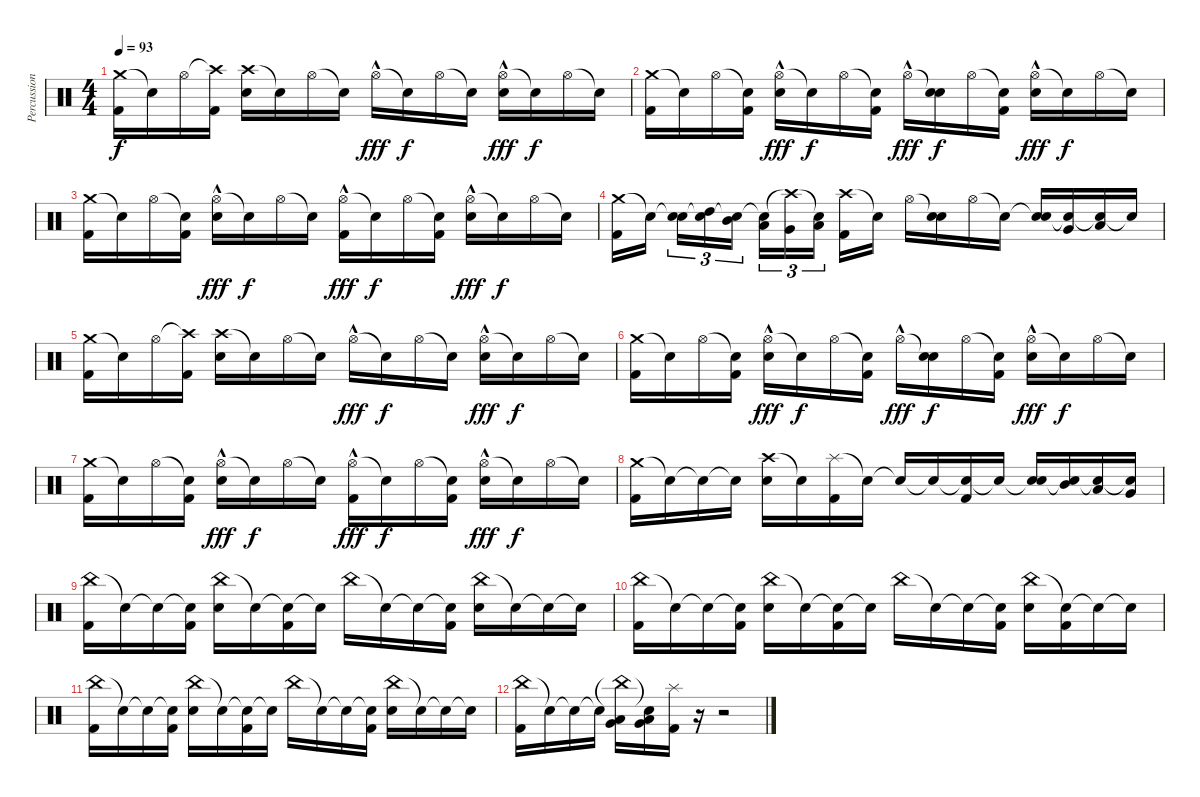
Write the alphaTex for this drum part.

\track ("Percussion" "Percussion") {instrument percussion}
\staff {score}
\articulation defaults
\ts (4 4)
\tempo 93
\clef neutral
\ks c
("Crash medium (hit)" "Kick (hit) 2").16{dy f} "Snare (hit)"{t}.16 "Hi-Hat (open)".16 ("Crash high (hit)"{t} "Kick (hit) 2").16 ("Crash high (hit)" "Electric Snare (hit)").16 "Snare (hit)"{t}.16 "Hi-Hat (open)".16 "Snare (hit)"{t}.16 "Hi-Hat (open)"{hac}.16{dy fff} "Snare (hit)"{t}.16{dy f} "Hi-Hat (open)".16 "Snare (hit)"{t}.16 ("Hi-Hat (open)"{hac} "Electric Snare (hit)").16{dy fff} "Snare (hit)"{t}.16{dy f} "Hi-Hat (open)".16 "Snare (hit)"{t}.16 |
("Crash medium (hit)" "Kick (hit) 2").16 "Snare (hit)"{t}.16 "Hi-Hat (open)".16 ("Snare (hit)"{t} "Kick (hit) 2").16 ("Hi-Hat (open)"{hac} "Electric Snare (hit)").16{dy fff} "Snare (hit)"{t}.16{dy f} "Hi-Hat (open)".16 ("Snare (hit)"{t} "Kick (hit) 2").16 "Hi-Hat (open)"{hac}.16{dy fff} ("Snare (hit)"{t} "Electric Snare (hit)").16{dy f} "Hi-Hat (open)".16 ("Snare (hit)"{t} "Kick (hit) 2").16 ("Hi-Hat (open)"{hac} "Electric Snare (hit)").16{dy fff} "Snare (hit)"{t}.16{dy f} "Hi-Hat (open)".16 "Snare (hit)"{t}.16 |
("Crash medium (hit)" "Kick (hit) 2").16 "Snare (hit)"{t}.16 "Hi-Hat (open)".16 ("Snare (hit)"{t} "Kick (hit) 2").16 ("Hi-Hat (open)"{hac} "Electric Snare (hit)").16{dy fff} "Snare (hit)"{t}.16{dy f} "Hi-Hat (open)".16 "Snare (hit)"{t}.16 ("Hi-Hat (open)"{hac} "Kick (hit) 2").16{dy fff} "Snare (hit)"{t}.16{dy f} "Hi-Hat (open)".16 ("Snare (hit)"{t} "Kick (hit) 2").16 ("Hi-Hat (open)"{hac} "Electric Snare (hit)").16{dy fff} "Snare (hit)"{t}.16{dy f} "Hi-Hat (open)".16 "Snare (hit)"{t}.16 |
("Crash medium (hit)" "Kick (hit) 2").16 "Snare (hit)"{t}.16{beam splitsecondary} ("Snare (hit)"{t} "Electric Snare (hit)").16{tu (3 2)} ("Snare (hit)"{t} "High Tom (hit)").16{tu (3 2)} ("Snare (hit)"{t} "Mid Tom (hit)").16{tu (3 2)} ("Snare (hit)"{t} "Low Tom (hit)").16{tu (3 2)} ("Crash high (hit)"{t} "Very Low Tom (hit)").16{tu (3 2)} ("Snare (hit)"{t} "Low Floor Tom (hit)").16{tu (3 2) beam splitsecondary} ("Crash high (hit)" "Kick (hit) 2").16 "Snare (hit)"{t}.16 "Hi-Hat (open)".16 ("Snare (hit)"{t} "Electric Snare (hit)").16 "Hi-Hat (open)".16 "Snare (hit)"{t}.16 ("Snare (hit)"{t} "Electric Snare (hit)").16 ("Snare (hit)"{t} "Very Low Tom (hit)").16 ("Snare (hit)"{t} "Low Floor Tom (hit)").16 "Snare (hit)"{t}.16 |
("Crash medium (hit)" "Kick (hit) 2").16 "Snare (hit)"{t}.16 "Hi-Hat (open)".16 ("Crash high (hit)"{t} "Kick (hit) 2").16 ("Crash high (hit)" "Electric Snare (hit)").16 "Snare (hit)"{t}.16 "Hi-Hat (open)".16 "Snare (hit)"{t}.16 "Hi-Hat (open)"{hac}.16{dy fff} "Snare (hit)"{t}.16{dy f} "Hi-Hat (open)".16 "Snare (hit)"{t}.16 ("Hi-Hat (open)"{hac} "Electric Snare (hit)").16{dy fff} "Snare (hit)"{t}.16{dy f} "Hi-Hat (open)".16 "Snare (hit)"{t}.16 |
("Crash medium (hit)" "Kick (hit) 2").16 "Snare (hit)"{t}.16 "Hi-Hat (open)".16 ("Snare (hit)"{t} "Kick (hit) 2").16 ("Hi-Hat (open)"{hac} "Electric Snare (hit)").16{dy fff} "Snare (hit)"{t}.16{dy f} "Hi-Hat (open)".16 ("Snare (hit)"{t} "Kick (hit) 2").16 "Hi-Hat (open)"{hac}.16{dy fff} ("Snare (hit)"{t} "Electric Snare (hit)").16{dy f} "Hi-Hat (open)".16 ("Snare (hit)"{t} "Kick (hit) 2").16 ("Hi-Hat (open)"{hac} "Electric Snare (hit)").16{dy fff} "Snare (hit)"{t}.16{dy f} "Hi-Hat (open)".16 "Snare (hit)"{t}.16 |
("Crash medium (hit)" "Kick (hit) 2").16 "Snare (hit)"{t}.16 "Hi-Hat (open)".16 ("Snare (hit)"{t} "Kick (hit) 2").16 ("Hi-Hat (open)"{hac} "Electric Snare (hit)").16{dy fff} "Snare (hit)"{t}.16{dy f} "Hi-Hat (open)".16 "Snare (hit)"{t}.16 ("Hi-Hat (open)"{hac} "Kick (hit) 2").16{dy fff} "Snare (hit)"{t}.16{dy f} "Hi-Hat (open)".16 ("Snare (hit)"{t} "Kick (hit) 2").16 ("Hi-Hat (open)"{hac} "Electric Snare (hit)").16{dy fff} "Snare (hit)"{t}.16{dy f} "Hi-Hat (open)".16 "Snare (hit)"{t}.16 |
("Crash medium (hit)" "Kick (hit) 2").16 "Snare (hit)"{t}.16 "Snare (hit)"{t}.16 "Snare (hit)"{t}.16 ("Crash high (hit)" "Electric Snare (hit)").16 "Snare (hit)"{t}.16 ("Splash (hit)" "Kick (hit) 2").16 "Snare (hit)"{t}.16 "Snare (hit)"{t}.16 "Snare (hit)"{t}.16 ("Snare (hit)"{t} "Kick (hit) 2").16 "Snare (hit)"{t}.16 ("Snare (hit)"{t} "Electric Snare (hit)").16 ("Snare (hit)"{t} "Mid Tom (hit)").16 ("Snare (hit)"{t} "Low Tom (hit)").16 ("Snare (hit)"{t} "Very Low Tom (hit)").16 |
("China (hit)" "Kick (hit) 2").16 "Snare (hit)"{t}.16 "Snare (hit)"{t}.16 ("Snare (hit)"{t} "Kick (hit) 2").16 ("China (hit)" "Electric Snare (hit)").16 "Snare (hit)"{t}.16 ("Snare (hit)"{t} "Kick (hit) 2").16 "Snare (hit)"{t}.16 "China (hit)".16 "Snare (hit)"{t}.16 "Snare (hit)"{t}.16 ("Snare (hit)"{t} "Kick (hit) 2").16 ("China (hit)" "Electric Snare (hit)").16 "Snare (hit)"{t}.16 "Snare (hit)"{t}.16 "Snare (hit)"{t}.16 |
("China (hit)" "Kick (hit) 2").16 "Snare (hit)"{t}.16 "Snare (hit)"{t}.16 ("Snare (hit)"{t} "Kick (hit) 2").16 ("China (hit)" "Electric Snare (hit)").16 "Snare (hit)"{t}.16 ("Snare (hit)"{t} "Kick (hit) 2").16 "Snare (hit)"{t}.16 "China (hit)".16 "Snare (hit)"{t}.16 "Snare (hit)"{t}.16 ("Snare (hit)"{t} "Kick (hit) 2").16 ("China (hit)" "Electric Snare (hit)").16 ("Snare (hit)"{t} "Kick (hit) 2").16 "Snare (hit)"{t}.16 "Snare (hit)"{t}.16 |
("China (hit)" "Kick (hit) 2").16 "Snare (hit)"{t}.16 "Snare (hit)"{t}.16 ("Snare (hit)"{t} "Kick (hit) 2").16 ("China (hit)" "Electric Snare (hit)").16 "Snare (hit)"{t}.16 ("Snare (hit)"{t} "Kick (hit) 2").16 "Snare (hit)"{t}.16 "China (hit)".16 "Snare (hit)"{t}.16 "Snare (hit)"{t}.16 ("Snare (hit)"{t} "Kick (hit) 2").16 ("China (hit)" "Electric Snare (hit)").16 "Snare (hit)"{t}.16 "Snare (hit)"{t}.16 "Snare (hit)"{t}.16 |
("China (hit)" "Kick (hit) 2").16 "Snare (hit)"{t}.16 "Snare (hit)"{t}.16 "Snare (hit)"{t}.16 ("China (hit)"{t} "Low Floor Tom (hit)" "Very Low Tom (hit)").16 ("Snare (hit)"{t} "Low Floor Tom (hit)" "Very Low Tom (hit)").16 ("Splash (hit)" "Kick (hit) 2").16 r.16 r.2
